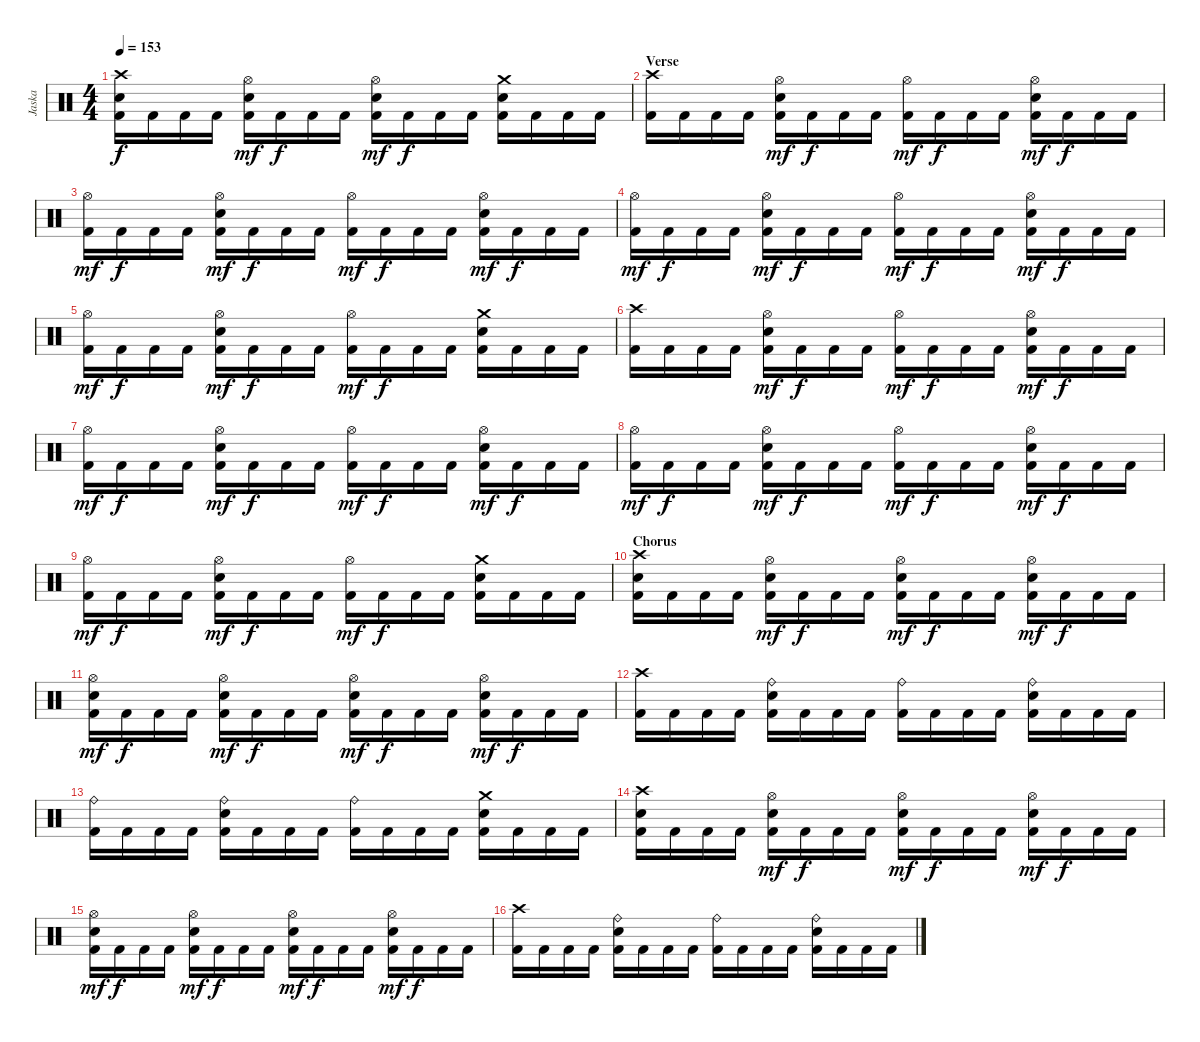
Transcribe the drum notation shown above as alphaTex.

\track ("Jaska" "Jaska") {instrument percussion}
\staff {score}
\articulation defaults
\ts (4 4)
\tempo 153
\clef neutral
\ks c
("Crash high (hit)" "Electric Snare (hit)" "Kick (hit) 2").16{dy f} "Kick (hit) 2".16 "Kick (hit) 2".16 "Kick (hit) 2".16 ("Hi-Hat (open)" "Electric Snare (hit)" "Kick (hit) 2").16{dy mf} "Kick (hit) 2".16{dy f} "Kick (hit) 2".16 "Kick (hit) 2".16 ("Hi-Hat (open)" "Electric Snare (hit)" "Kick (hit) 2").16{dy mf} "Kick (hit) 2".16{dy f} "Kick (hit) 2".16 "Kick (hit) 2".16 ("Crash medium (hit)" "Electric Snare (hit)" "Kick (hit) 2").16 "Kick (hit) 2".16 "Kick (hit) 2".16 "Kick (hit) 2".16 |
\section ("" "Verse")
("Crash high (hit)" "Kick (hit) 2").16 "Kick (hit) 2".16 "Kick (hit) 2".16 "Kick (hit) 2".16 ("Hi-Hat (open)" "Electric Snare (hit)" "Kick (hit) 2").16{dy mf} "Kick (hit) 2".16{dy f} "Kick (hit) 2".16 "Kick (hit) 2".16 ("Hi-Hat (open)" "Kick (hit) 2").16{dy mf} "Kick (hit) 2".16{dy f} "Kick (hit) 2".16 "Kick (hit) 2".16 ("Hi-Hat (open)" "Electric Snare (hit)" "Kick (hit) 2").16{dy mf} "Kick (hit) 2".16{dy f} "Kick (hit) 2".16 "Kick (hit) 2".16 |
("Hi-Hat (open)" "Kick (hit) 2").16{dy mf} "Kick (hit) 2".16{dy f} "Kick (hit) 2".16 "Kick (hit) 2".16 ("Hi-Hat (open)" "Electric Snare (hit)" "Kick (hit) 2").16{dy mf} "Kick (hit) 2".16{dy f} "Kick (hit) 2".16 "Kick (hit) 2".16 ("Hi-Hat (open)" "Kick (hit) 2").16{dy mf} "Kick (hit) 2".16{dy f} "Kick (hit) 2".16 "Kick (hit) 2".16 ("Hi-Hat (open)" "Electric Snare (hit)" "Kick (hit) 2").16{dy mf} "Kick (hit) 2".16{dy f} "Kick (hit) 2".16 "Kick (hit) 2".16 |
("Hi-Hat (open)" "Kick (hit) 2").16{dy mf} "Kick (hit) 2".16{dy f} "Kick (hit) 2".16 "Kick (hit) 2".16 ("Hi-Hat (open)" "Electric Snare (hit)" "Kick (hit) 2").16{dy mf} "Kick (hit) 2".16{dy f} "Kick (hit) 2".16 "Kick (hit) 2".16 ("Hi-Hat (open)" "Kick (hit) 2").16{dy mf} "Kick (hit) 2".16{dy f} "Kick (hit) 2".16 "Kick (hit) 2".16 ("Hi-Hat (open)" "Electric Snare (hit)" "Kick (hit) 2").16{dy mf} "Kick (hit) 2".16{dy f} "Kick (hit) 2".16 "Kick (hit) 2".16 |
("Hi-Hat (open)" "Kick (hit) 2").16{dy mf} "Kick (hit) 2".16{dy f} "Kick (hit) 2".16 "Kick (hit) 2".16 ("Hi-Hat (open)" "Electric Snare (hit)" "Kick (hit) 2").16{dy mf} "Kick (hit) 2".16{dy f} "Kick (hit) 2".16 "Kick (hit) 2".16 ("Hi-Hat (open)" "Kick (hit) 2").16{dy mf} "Kick (hit) 2".16{dy f} "Kick (hit) 2".16 "Kick (hit) 2".16 ("Crash medium (hit)" "Electric Snare (hit)" "Kick (hit) 2").16 "Kick (hit) 2".16 "Kick (hit) 2".16 "Kick (hit) 2".16 |
("Crash high (hit)" "Kick (hit) 2").16 "Kick (hit) 2".16 "Kick (hit) 2".16 "Kick (hit) 2".16 ("Hi-Hat (open)" "Electric Snare (hit)" "Kick (hit) 2").16{dy mf} "Kick (hit) 2".16{dy f} "Kick (hit) 2".16 "Kick (hit) 2".16 ("Hi-Hat (open)" "Kick (hit) 2").16{dy mf} "Kick (hit) 2".16{dy f} "Kick (hit) 2".16 "Kick (hit) 2".16 ("Hi-Hat (open)" "Electric Snare (hit)" "Kick (hit) 2").16{dy mf} "Kick (hit) 2".16{dy f} "Kick (hit) 2".16 "Kick (hit) 2".16 |
("Hi-Hat (open)" "Kick (hit) 2").16{dy mf} "Kick (hit) 2".16{dy f} "Kick (hit) 2".16 "Kick (hit) 2".16 ("Hi-Hat (open)" "Electric Snare (hit)" "Kick (hit) 2").16{dy mf} "Kick (hit) 2".16{dy f} "Kick (hit) 2".16 "Kick (hit) 2".16 ("Hi-Hat (open)" "Kick (hit) 2").16{dy mf} "Kick (hit) 2".16{dy f} "Kick (hit) 2".16 "Kick (hit) 2".16 ("Hi-Hat (open)" "Electric Snare (hit)" "Kick (hit) 2").16{dy mf} "Kick (hit) 2".16{dy f} "Kick (hit) 2".16 "Kick (hit) 2".16 |
("Hi-Hat (open)" "Kick (hit) 2").16{dy mf} "Kick (hit) 2".16{dy f} "Kick (hit) 2".16 "Kick (hit) 2".16 ("Hi-Hat (open)" "Electric Snare (hit)" "Kick (hit) 2").16{dy mf} "Kick (hit) 2".16{dy f} "Kick (hit) 2".16 "Kick (hit) 2".16 ("Hi-Hat (open)" "Kick (hit) 2").16{dy mf} "Kick (hit) 2".16{dy f} "Kick (hit) 2".16 "Kick (hit) 2".16 ("Hi-Hat (open)" "Electric Snare (hit)" "Kick (hit) 2").16{dy mf} "Kick (hit) 2".16{dy f} "Kick (hit) 2".16 "Kick (hit) 2".16 |
("Hi-Hat (open)" "Kick (hit) 2").16{dy mf} "Kick (hit) 2".16{dy f} "Kick (hit) 2".16 "Kick (hit) 2".16 ("Hi-Hat (open)" "Electric Snare (hit)" "Kick (hit) 2").16{dy mf} "Kick (hit) 2".16{dy f} "Kick (hit) 2".16 "Kick (hit) 2".16 ("Hi-Hat (open)" "Kick (hit) 2").16{dy mf} "Kick (hit) 2".16{dy f} "Kick (hit) 2".16 "Kick (hit) 2".16 ("Crash medium (hit)" "Electric Snare (hit)" "Kick (hit) 2").16 "Kick (hit) 2".16 "Kick (hit) 2".16 "Kick (hit) 2".16 |
\section ("" "Chorus")
("Crash high (hit)" "Electric Snare (hit)" "Kick (hit) 2").16 "Kick (hit) 2".16 "Kick (hit) 2".16 "Kick (hit) 2".16 ("Hi-Hat (open)" "Electric Snare (hit)" "Kick (hit) 2").16{dy mf} "Kick (hit) 2".16{dy f} "Kick (hit) 2".16 "Kick (hit) 2".16 ("Hi-Hat (open)" "Electric Snare (hit)" "Kick (hit) 2").16{dy mf} "Kick (hit) 2".16{dy f} "Kick (hit) 2".16 "Kick (hit) 2".16 ("Hi-Hat (open)" "Electric Snare (hit)" "Kick (hit) 2").16{dy mf} "Kick (hit) 2".16{dy f} "Kick (hit) 2".16 "Kick (hit) 2".16 |
("Hi-Hat (open)" "Electric Snare (hit)" "Kick (hit) 2").16{dy mf} "Kick (hit) 2".16{dy f} "Kick (hit) 2".16 "Kick (hit) 2".16 ("Hi-Hat (open)" "Electric Snare (hit)" "Kick (hit) 2").16{dy mf} "Kick (hit) 2".16{dy f} "Kick (hit) 2".16 "Kick (hit) 2".16 ("Hi-Hat (open)" "Electric Snare (hit)" "Kick (hit) 2").16{dy mf} "Kick (hit) 2".16{dy f} "Kick (hit) 2".16 "Kick (hit) 2".16 ("Hi-Hat (open)" "Electric Snare (hit)" "Kick (hit) 2").16{dy mf} "Kick (hit) 2".16{dy f} "Kick (hit) 2".16 "Kick (hit) 2".16 |
("Crash high (hit)" "Kick (hit) 2").16 "Kick (hit) 2".16 "Kick (hit) 2".16 "Kick (hit) 2".16 ("Ride (bell)" "Electric Snare (hit)" "Kick (hit) 2").16 "Kick (hit) 2".16 "Kick (hit) 2".16 "Kick (hit) 2".16 ("Ride (bell)" "Kick (hit) 2").16 "Kick (hit) 2".16 "Kick (hit) 2".16 "Kick (hit) 2".16 ("Ride (bell)" "Electric Snare (hit)" "Kick (hit) 2").16 "Kick (hit) 2".16 "Kick (hit) 2".16 "Kick (hit) 2".16 |
("Ride (bell)" "Kick (hit) 2").16 "Kick (hit) 2".16 "Kick (hit) 2".16 "Kick (hit) 2".16 ("Ride (bell)" "Electric Snare (hit)" "Kick (hit) 2").16 "Kick (hit) 2".16 "Kick (hit) 2".16 "Kick (hit) 2".16 ("Ride (bell)" "Kick (hit) 2").16 "Kick (hit) 2".16 "Kick (hit) 2".16 "Kick (hit) 2".16 ("Crash medium (hit)" "Electric Snare (hit)" "Kick (hit) 2").16 "Kick (hit) 2".16 "Kick (hit) 2".16 "Kick (hit) 2".16 |
("Crash high (hit)" "Electric Snare (hit)" "Kick (hit) 2").16 "Kick (hit) 2".16 "Kick (hit) 2".16 "Kick (hit) 2".16 ("Hi-Hat (open)" "Electric Snare (hit)" "Kick (hit) 2").16{dy mf} "Kick (hit) 2".16{dy f} "Kick (hit) 2".16 "Kick (hit) 2".16 ("Hi-Hat (open)" "Electric Snare (hit)" "Kick (hit) 2").16{dy mf} "Kick (hit) 2".16{dy f} "Kick (hit) 2".16 "Kick (hit) 2".16 ("Hi-Hat (open)" "Electric Snare (hit)" "Kick (hit) 2").16{dy mf} "Kick (hit) 2".16{dy f} "Kick (hit) 2".16 "Kick (hit) 2".16 |
("Hi-Hat (open)" "Electric Snare (hit)" "Kick (hit) 2").16{dy mf} "Kick (hit) 2".16{dy f} "Kick (hit) 2".16 "Kick (hit) 2".16 ("Hi-Hat (open)" "Electric Snare (hit)" "Kick (hit) 2").16{dy mf} "Kick (hit) 2".16{dy f} "Kick (hit) 2".16 "Kick (hit) 2".16 ("Hi-Hat (open)" "Electric Snare (hit)" "Kick (hit) 2").16{dy mf} "Kick (hit) 2".16{dy f} "Kick (hit) 2".16 "Kick (hit) 2".16 ("Hi-Hat (open)" "Electric Snare (hit)" "Kick (hit) 2").16{dy mf} "Kick (hit) 2".16{dy f} "Kick (hit) 2".16 "Kick (hit) 2".16 |
("Crash high (hit)" "Kick (hit) 2").16 "Kick (hit) 2".16 "Kick (hit) 2".16 "Kick (hit) 2".16 ("Ride (bell)" "Electric Snare (hit)" "Kick (hit) 2").16 "Kick (hit) 2".16 "Kick (hit) 2".16 "Kick (hit) 2".16 ("Ride (bell)" "Kick (hit) 2").16 "Kick (hit) 2".16 "Kick (hit) 2".16 "Kick (hit) 2".16 ("Ride (bell)" "Electric Snare (hit)" "Kick (hit) 2").16 "Kick (hit) 2".16 "Kick (hit) 2".16 "Kick (hit) 2".16
